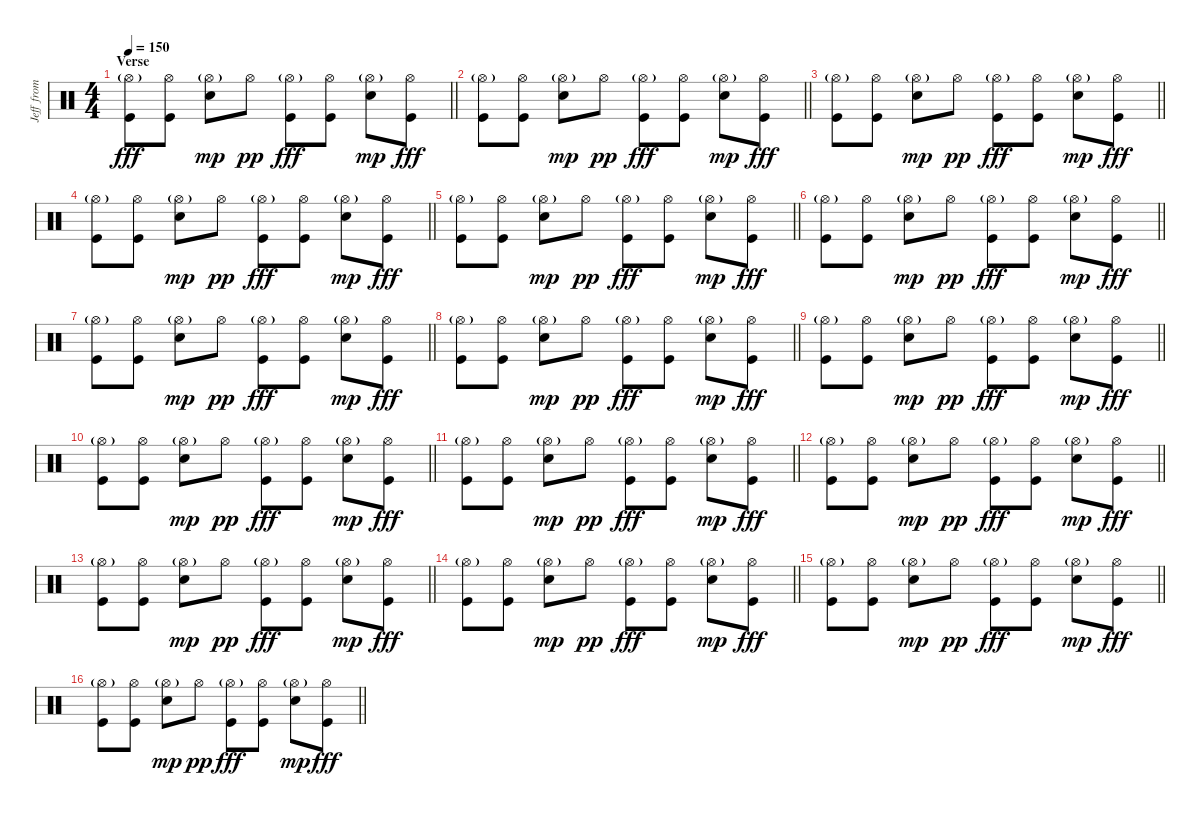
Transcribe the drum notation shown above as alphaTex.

\track ("Jeff from Chelsea - Drum" "Jeff from ") {instrument percussion bank 27}
\staff {score}
\articulation defaults
\ts (4 4)
\section ("" "Verse")
\tempo 150
\clef neutral
\barLineRight lightlight
\ks c
("Hi-Hat (open)"{g} "Kick (hit)").8{dy fff} ("Hi-Hat (open)" "Kick (hit)").8 ("Hi-Hat (open)"{g} "Snare (hit) 2").8{dy mp} "Hi-Hat (open)".8{dy pp} ("Hi-Hat (open)"{g} "Kick (hit)").8{dy fff} ("Hi-Hat (open)" "Kick (hit)").8 ("Hi-Hat (open)"{g} "Snare (hit) 2").8{dy mp} ("Hi-Hat (open)" "Kick (hit)").8{dy fff} |
\barLineRight lightlight
("Hi-Hat (open)"{g} "Kick (hit)").8 ("Hi-Hat (open)" "Kick (hit)").8 ("Hi-Hat (open)"{g} "Snare (hit) 2").8{dy mp} "Hi-Hat (open)".8{dy pp} ("Hi-Hat (open)"{g} "Kick (hit)").8{dy fff} ("Hi-Hat (open)" "Kick (hit)").8 ("Hi-Hat (open)"{g} "Snare (hit) 2").8{dy mp} ("Hi-Hat (open)" "Kick (hit)").8{dy fff} |
\barLineRight lightlight
("Hi-Hat (open)"{g} "Kick (hit)").8 ("Hi-Hat (open)" "Kick (hit)").8 ("Hi-Hat (open)"{g} "Snare (hit) 2").8{dy mp} "Hi-Hat (open)".8{dy pp} ("Hi-Hat (open)"{g} "Kick (hit)").8{dy fff} ("Hi-Hat (open)" "Kick (hit)").8 ("Hi-Hat (open)"{g} "Snare (hit) 2").8{dy mp} ("Hi-Hat (open)" "Kick (hit)").8{dy fff} |
\barLineRight lightlight
("Hi-Hat (open)"{g} "Kick (hit)").8 ("Hi-Hat (open)" "Kick (hit)").8 ("Hi-Hat (open)"{g} "Snare (hit) 2").8{dy mp} "Hi-Hat (open)".8{dy pp} ("Hi-Hat (open)"{g} "Kick (hit)").8{dy fff} ("Hi-Hat (open)" "Kick (hit)").8 ("Hi-Hat (open)"{g} "Snare (hit) 2").8{dy mp} ("Hi-Hat (open)" "Kick (hit)").8{dy fff} |
\barLineRight lightlight
("Hi-Hat (open)"{g} "Kick (hit)").8 ("Hi-Hat (open)" "Kick (hit)").8 ("Hi-Hat (open)"{g} "Snare (hit) 2").8{dy mp} "Hi-Hat (open)".8{dy pp} ("Hi-Hat (open)"{g} "Kick (hit)").8{dy fff} ("Hi-Hat (open)" "Kick (hit)").8 ("Hi-Hat (open)"{g} "Snare (hit) 2").8{dy mp} ("Hi-Hat (open)" "Kick (hit)").8{dy fff} |
\barLineRight lightlight
("Hi-Hat (open)"{g} "Kick (hit)").8 ("Hi-Hat (open)" "Kick (hit)").8 ("Hi-Hat (open)"{g} "Snare (hit) 2").8{dy mp} "Hi-Hat (open)".8{dy pp} ("Hi-Hat (open)"{g} "Kick (hit)").8{dy fff} ("Hi-Hat (open)" "Kick (hit)").8 ("Hi-Hat (open)"{g} "Snare (hit) 2").8{dy mp} ("Hi-Hat (open)" "Kick (hit)").8{dy fff} |
\barLineRight lightlight
("Hi-Hat (open)"{g} "Kick (hit)").8 ("Hi-Hat (open)" "Kick (hit)").8 ("Hi-Hat (open)"{g} "Snare (hit) 2").8{dy mp} "Hi-Hat (open)".8{dy pp} ("Hi-Hat (open)"{g} "Kick (hit)").8{dy fff} ("Hi-Hat (open)" "Kick (hit)").8 ("Hi-Hat (open)"{g} "Snare (hit) 2").8{dy mp} ("Hi-Hat (open)" "Kick (hit)").8{dy fff} |
\barLineRight lightlight
("Hi-Hat (open)"{g} "Kick (hit)").8 ("Hi-Hat (open)" "Kick (hit)").8 ("Hi-Hat (open)"{g} "Snare (hit) 2").8{dy mp} "Hi-Hat (open)".8{dy pp} ("Hi-Hat (open)"{g} "Kick (hit)").8{dy fff} ("Hi-Hat (open)" "Kick (hit)").8 ("Hi-Hat (open)"{g} "Snare (hit) 2").8{dy mp} ("Hi-Hat (open)" "Kick (hit)").8{dy fff} |
\barLineRight lightlight
("Hi-Hat (open)"{g} "Kick (hit)").8 ("Hi-Hat (open)" "Kick (hit)").8 ("Hi-Hat (open)"{g} "Snare (hit) 2").8{dy mp} "Hi-Hat (open)".8{dy pp} ("Hi-Hat (open)"{g} "Kick (hit)").8{dy fff} ("Hi-Hat (open)" "Kick (hit)").8 ("Hi-Hat (open)"{g} "Snare (hit) 2").8{dy mp} ("Hi-Hat (open)" "Kick (hit)").8{dy fff} |
\barLineRight lightlight
("Hi-Hat (open)"{g} "Kick (hit)").8 ("Hi-Hat (open)" "Kick (hit)").8 ("Hi-Hat (open)"{g} "Snare (hit) 2").8{dy mp} "Hi-Hat (open)".8{dy pp} ("Hi-Hat (open)"{g} "Kick (hit)").8{dy fff} ("Hi-Hat (open)" "Kick (hit)").8 ("Hi-Hat (open)"{g} "Snare (hit) 2").8{dy mp} ("Hi-Hat (open)" "Kick (hit)").8{dy fff} |
\barLineRight lightlight
("Hi-Hat (open)"{g} "Kick (hit)").8 ("Hi-Hat (open)" "Kick (hit)").8 ("Hi-Hat (open)"{g} "Snare (hit) 2").8{dy mp} "Hi-Hat (open)".8{dy pp} ("Hi-Hat (open)"{g} "Kick (hit)").8{dy fff} ("Hi-Hat (open)" "Kick (hit)").8 ("Hi-Hat (open)"{g} "Snare (hit) 2").8{dy mp} ("Hi-Hat (open)" "Kick (hit)").8{dy fff} |
\barLineRight lightlight
("Hi-Hat (open)"{g} "Kick (hit)").8 ("Hi-Hat (open)" "Kick (hit)").8 ("Hi-Hat (open)"{g} "Snare (hit) 2").8{dy mp} "Hi-Hat (open)".8{dy pp} ("Hi-Hat (open)"{g} "Kick (hit)").8{dy fff} ("Hi-Hat (open)" "Kick (hit)").8 ("Hi-Hat (open)"{g} "Snare (hit) 2").8{dy mp} ("Hi-Hat (open)" "Kick (hit)").8{dy fff} |
\barLineRight lightlight
("Hi-Hat (open)"{g} "Kick (hit)").8 ("Hi-Hat (open)" "Kick (hit)").8 ("Hi-Hat (open)"{g} "Snare (hit) 2").8{dy mp} "Hi-Hat (open)".8{dy pp} ("Hi-Hat (open)"{g} "Kick (hit)").8{dy fff} ("Hi-Hat (open)" "Kick (hit)").8 ("Hi-Hat (open)"{g} "Snare (hit) 2").8{dy mp} ("Hi-Hat (open)" "Kick (hit)").8{dy fff} |
\barLineRight lightlight
("Hi-Hat (open)"{g} "Kick (hit)").8 ("Hi-Hat (open)" "Kick (hit)").8 ("Hi-Hat (open)"{g} "Snare (hit) 2").8{dy mp} "Hi-Hat (open)".8{dy pp} ("Hi-Hat (open)"{g} "Kick (hit)").8{dy fff} ("Hi-Hat (open)" "Kick (hit)").8 ("Hi-Hat (open)"{g} "Snare (hit) 2").8{dy mp} ("Hi-Hat (open)" "Kick (hit)").8{dy fff} |
\barLineRight lightlight
("Hi-Hat (open)"{g} "Kick (hit)").8 ("Hi-Hat (open)" "Kick (hit)").8 ("Hi-Hat (open)"{g} "Snare (hit) 2").8{dy mp} "Hi-Hat (open)".8{dy pp} ("Hi-Hat (open)"{g} "Kick (hit)").8{dy fff} ("Hi-Hat (open)" "Kick (hit)").8 ("Hi-Hat (open)"{g} "Snare (hit) 2").8{dy mp} ("Hi-Hat (open)" "Kick (hit)").8{dy fff} |
\barLineRight lightlight
("Hi-Hat (open)"{g} "Kick (hit)").8 ("Hi-Hat (open)" "Kick (hit)").8 ("Hi-Hat (open)"{g} "Snare (hit) 2").8{dy mp} "Hi-Hat (open)".8{dy pp} ("Hi-Hat (open)"{g} "Kick (hit)").8{dy fff} ("Hi-Hat (open)" "Kick (hit)").8 ("Hi-Hat (open)"{g} "Snare (hit) 2").8{dy mp} ("Hi-Hat (open)" "Kick (hit)").8{dy fff}
